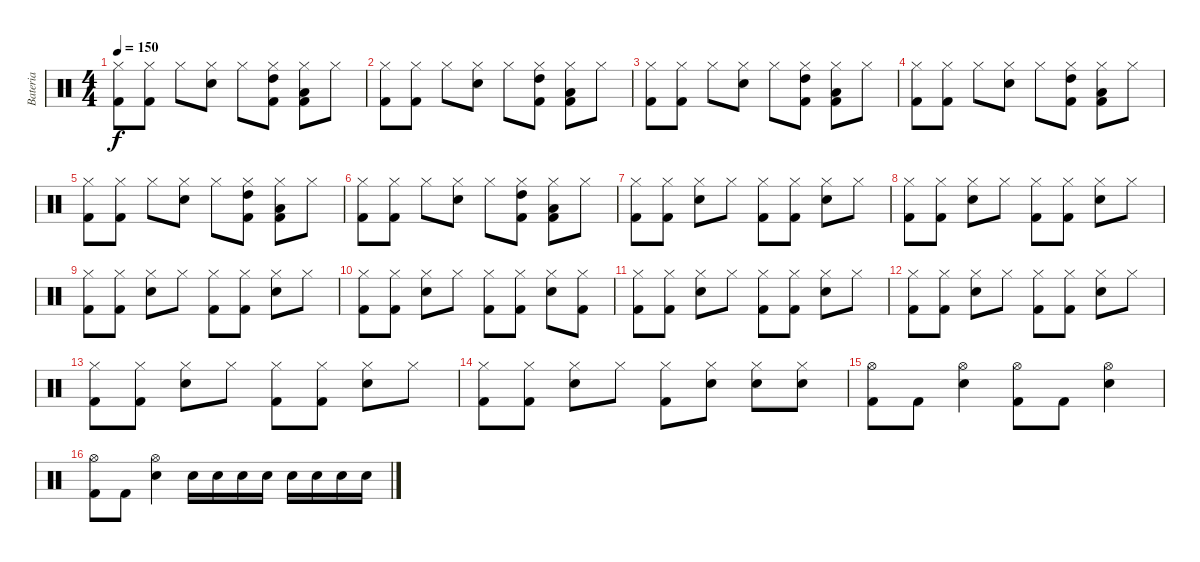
\track ("Bateria" "Bateria") {instrument percussion}
\staff {score}
\articulation defaults
\ts (4 4)
\tempo 150
\clef neutral
\ks c
("Kick (hit) 2" "Hi-Hat (closed)").8{dy f} ("Kick (hit) 2" "Hi-Hat (closed)").8 "Hi-Hat (closed)".8 ("Electric Snare (hit)" "Hi-Hat (closed)").8 "Hi-Hat (closed)".8 ("Kick (hit) 2" "High Tom (hit)" "Hi-Hat (closed)").8 ("Kick (hit) 2" "Low Tom (hit)" "Hi-Hat (closed)").8 "Hi-Hat (closed)".8 |
("Kick (hit) 2" "Hi-Hat (closed)").8 ("Kick (hit) 2" "Hi-Hat (closed)").8 "Hi-Hat (closed)".8 ("Electric Snare (hit)" "Hi-Hat (closed)").8 "Hi-Hat (closed)".8 ("Kick (hit) 2" "High Tom (hit)" "Hi-Hat (closed)").8 ("Kick (hit) 2" "Low Tom (hit)" "Hi-Hat (closed)").8 "Hi-Hat (closed)".8 |
("Kick (hit) 2" "Hi-Hat (closed)").8 ("Kick (hit) 2" "Hi-Hat (closed)").8 "Hi-Hat (closed)".8 ("Electric Snare (hit)" "Hi-Hat (closed)").8 "Hi-Hat (closed)".8 ("Kick (hit) 2" "High Tom (hit)" "Hi-Hat (closed)").8 ("Kick (hit) 2" "Low Tom (hit)" "Hi-Hat (closed)").8 "Hi-Hat (closed)".8 |
("Kick (hit) 2" "Hi-Hat (closed)").8 ("Kick (hit) 2" "Hi-Hat (closed)").8 "Hi-Hat (closed)".8 ("Electric Snare (hit)" "Hi-Hat (closed)").8 "Hi-Hat (closed)".8 ("Kick (hit) 2" "High Tom (hit)" "Hi-Hat (closed)").8 ("Kick (hit) 2" "Low Tom (hit)" "Hi-Hat (closed)").8 "Hi-Hat (closed)".8 |
("Kick (hit) 2" "Hi-Hat (closed)").8 ("Kick (hit) 2" "Hi-Hat (closed)").8 "Hi-Hat (closed)".8 ("Electric Snare (hit)" "Hi-Hat (closed)").8 "Hi-Hat (closed)".8 ("Kick (hit) 2" "High Tom (hit)" "Hi-Hat (closed)").8 ("Kick (hit) 2" "Low Tom (hit)" "Hi-Hat (closed)").8 "Hi-Hat (closed)".8 |
("Kick (hit) 2" "Hi-Hat (closed)").8 ("Kick (hit) 2" "Hi-Hat (closed)").8 "Hi-Hat (closed)".8 ("Electric Snare (hit)" "Hi-Hat (closed)").8 "Hi-Hat (closed)".8 ("Kick (hit) 2" "High Tom (hit)" "Hi-Hat (closed)").8 ("Kick (hit) 2" "Low Tom (hit)" "Hi-Hat (closed)").8 "Hi-Hat (closed)".8 |
("Kick (hit) 2" "Hi-Hat (closed)").8 ("Kick (hit) 2" "Hi-Hat (closed)").8 ("Electric Snare (hit)" "Hi-Hat (closed)").8 "Hi-Hat (closed)".8 ("Kick (hit) 2" "Hi-Hat (closed)").8 ("Kick (hit) 2" "Hi-Hat (closed)").8 ("Electric Snare (hit)" "Hi-Hat (closed)").8 "Hi-Hat (closed)".8 |
("Kick (hit) 2" "Hi-Hat (closed)").8 ("Kick (hit) 2" "Hi-Hat (closed)").8 ("Electric Snare (hit)" "Hi-Hat (closed)").8 "Hi-Hat (closed)".8 ("Kick (hit) 2" "Hi-Hat (closed)").8 ("Kick (hit) 2" "Hi-Hat (closed)").8 ("Electric Snare (hit)" "Hi-Hat (closed)").8 "Hi-Hat (closed)".8 |
("Kick (hit) 2" "Hi-Hat (closed)").8 ("Kick (hit) 2" "Hi-Hat (closed)").8 ("Electric Snare (hit)" "Hi-Hat (closed)").8 "Hi-Hat (closed)".8 ("Kick (hit) 2" "Hi-Hat (closed)").8 ("Kick (hit) 2" "Hi-Hat (closed)").8 ("Electric Snare (hit)" "Hi-Hat (closed)").8 "Hi-Hat (closed)".8 |
("Kick (hit) 2" "Hi-Hat (closed)").8 ("Kick (hit) 2" "Hi-Hat (closed)").8 ("Electric Snare (hit)" "Hi-Hat (closed)").8 "Hi-Hat (closed)".8 ("Kick (hit) 2" "Hi-Hat (closed)").8 ("Kick (hit) 2" "Hi-Hat (closed)").8 ("Electric Snare (hit)" "Hi-Hat (closed)").8 ("Kick (hit) 2" "Hi-Hat (closed)").8 |
("Kick (hit) 2" "Hi-Hat (closed)").8 ("Kick (hit) 2" "Hi-Hat (closed)").8 ("Electric Snare (hit)" "Hi-Hat (closed)").8 "Hi-Hat (closed)".8 ("Kick (hit) 2" "Hi-Hat (closed)").8 ("Kick (hit) 2" "Hi-Hat (closed)").8 ("Electric Snare (hit)" "Hi-Hat (closed)").8 "Hi-Hat (closed)".8 |
("Kick (hit) 2" "Hi-Hat (closed)").8 ("Kick (hit) 2" "Hi-Hat (closed)").8 ("Electric Snare (hit)" "Hi-Hat (closed)").8 "Hi-Hat (closed)".8 ("Kick (hit) 2" "Hi-Hat (closed)").8 ("Kick (hit) 2" "Hi-Hat (closed)").8 ("Electric Snare (hit)" "Hi-Hat (closed)").8 "Hi-Hat (closed)".8 |
("Kick (hit) 2" "Hi-Hat (closed)").8 ("Kick (hit) 2" "Hi-Hat (closed)").8 ("Electric Snare (hit)" "Hi-Hat (closed)").8 "Hi-Hat (closed)".8 ("Kick (hit) 2" "Hi-Hat (closed)").8 ("Kick (hit) 2" "Hi-Hat (closed)").8 ("Electric Snare (hit)" "Hi-Hat (closed)").8 "Hi-Hat (closed)".8 |
("Kick (hit) 2" "Hi-Hat (closed)").8 ("Kick (hit) 2" "Hi-Hat (closed)").8 ("Electric Snare (hit)" "Hi-Hat (closed)").8 "Hi-Hat (closed)".8 ("Kick (hit) 2" "Hi-Hat (closed)").8 ("Electric Snare (hit)" "Hi-Hat (closed)").8 ("Electric Snare (hit)" "Hi-Hat (closed)").8 ("Electric Snare (hit)" "Hi-Hat (closed)").8 |
("Kick (hit) 2" "Hi-Hat (open)").8 "Kick (hit) 2".8 ("Electric Snare (hit)" "Hi-Hat (open)").4 ("Kick (hit) 2" "Hi-Hat (open)").8 "Kick (hit) 2".8 ("Electric Snare (hit)" "Hi-Hat (open)").4 |
("Kick (hit) 2" "Hi-Hat (open)").8 "Kick (hit) 2".8 ("Electric Snare (hit)" "Hi-Hat (open)").4 "Electric Snare (hit)".16 "Electric Snare (hit)".16 "Electric Snare (hit)".16 "Electric Snare (hit)".16 "Electric Snare (hit)".16 "Electric Snare (hit)".16 "Electric Snare (hit)".16 "Electric Snare (hit)".16
